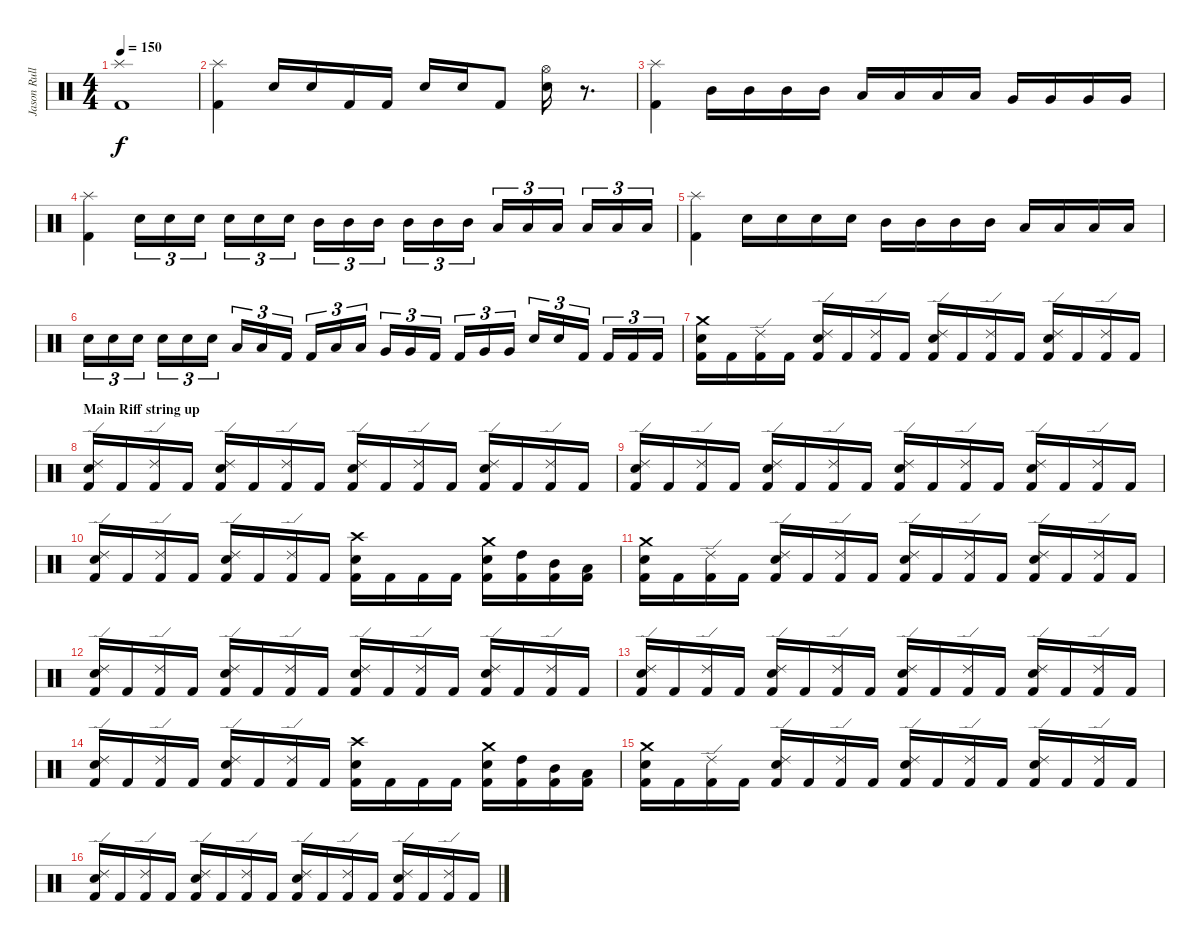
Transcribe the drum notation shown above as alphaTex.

\track ("Jason Rullo" "Jason Rull") {instrument percussion}
\staff {score}
\articulation defaults
\ts (4 4)
\tempo 150
\clef neutral
\ks c
("Splash (hit)" "Kick (hit) 2").1{dy f} |
("Splash (hit)" "Kick (hit) 2").4 "Electric Snare (hit)".16 "Electric Snare (hit)".16 "Kick (hit) 2".16 "Kick (hit) 2".16 "Electric Snare (hit)".16 "Electric Snare (hit)".16 "Kick (hit) 2".8 ("Hi-Hat (open)" "Electric Snare (hit)").16 r.8{d} |
("Splash (hit)" "Kick (hit) 2").4 "Mid Tom (hit)".16 "Mid Tom (hit)".16 "Mid Tom (hit)".16 "Mid Tom (hit)".16 "Low Tom (hit)".16 "Low Tom (hit)".16 "Low Tom (hit)".16 "Low Tom (hit)".16 "Very Low Tom (hit)".16 "Very Low Tom (hit)".16 "Very Low Tom (hit)".16 "Very Low Tom (hit)".16 |
("Splash (hit)" "Kick (hit) 2").4 "Electric Snare (hit)".16{tu (3 2)} "Electric Snare (hit)".16{tu (3 2)} "Electric Snare (hit)".16{tu (3 2)} "Electric Snare (hit)".16{tu (3 2)} "Electric Snare (hit)".16{tu (3 2)} "Electric Snare (hit)".16{tu (3 2)} "Mid Tom (hit)".16{tu (3 2)} "Mid Tom (hit)".16{tu (3 2)} "Mid Tom (hit)".16{tu (3 2)} "Mid Tom (hit)".16{tu (3 2)} "Mid Tom (hit)".16{tu (3 2)} "Mid Tom (hit)".16{tu (3 2)} "Low Tom (hit)".16{tu (3 2)} "Low Tom (hit)".16{tu (3 2)} "Low Tom (hit)".16{tu (3 2)} "Low Tom (hit)".16{tu (3 2)} "Low Tom (hit)".16{tu (3 2)} "Low Tom (hit)".16{tu (3 2)} |
("Splash (hit)" "Kick (hit) 2").4 "Electric Snare (hit)".16 "Electric Snare (hit)".16 "Electric Snare (hit)".16 "Electric Snare (hit)".16 "Mid Tom (hit)".16 "Mid Tom (hit)".16 "Mid Tom (hit)".16 "Mid Tom (hit)".16 "Low Tom (hit)".16 "Low Tom (hit)".16 "Low Tom (hit)".16 "Low Tom (hit)".16 |
"Electric Snare (hit)".16{tu (3 2)} "Electric Snare (hit)".16{tu (3 2)} "Electric Snare (hit)".16{tu (3 2)} "Electric Snare (hit)".16{tu (3 2)} "Electric Snare (hit)".16{tu (3 2)} "Electric Snare (hit)".16{tu (3 2)} "Low Tom (hit)".16{tu (3 2)} "Low Tom (hit)".16{tu (3 2)} "Kick (hit) 2".16{tu (3 2)} "Kick (hit) 2".16{tu (3 2)} "Low Tom (hit)".16{tu (3 2)} "Low Tom (hit)".16{tu (3 2)} "Very Low Tom (hit)".16{tu (3 2)} "Very Low Tom (hit)".16{tu (3 2)} "Kick (hit) 2".16{tu (3 2)} "Kick (hit) 2".16{tu (3 2)} "Very Low Tom (hit)".16{tu (3 2)} "Very Low Tom (hit)".16{tu (3 2)} "Electric Snare (hit)".16{tu (3 2)} "Electric Snare (hit)".16{tu (3 2)} "Kick (hit) 2".16{tu (3 2)} "Kick (hit) 2".16{tu (3 2)} "Kick (hit) 2".16{tu (3 2)} "Kick (hit) 2".16{tu (3 2)} |
("Crash medium (hit)" "Electric Snare (hit)" "Kick (hit) 2").16 "Kick (hit) 2".16 ("Ride (edge) 2" "Kick (hit) 2").16 "Kick (hit) 2".16 ("Ride (edge) 2" "Electric Snare (hit)" "Kick (hit) 2").16 "Kick (hit) 2".16 ("Ride (edge) 2" "Kick (hit) 2").16 "Kick (hit) 2".16 ("Ride (edge) 2" "Electric Snare (hit)" "Kick (hit) 2").16 "Kick (hit) 2".16 ("Ride (edge) 2" "Kick (hit) 2").16 "Kick (hit) 2".16 ("Ride (edge) 2" "Electric Snare (hit)" "Kick (hit) 2").16 "Kick (hit) 2".16 ("Ride (edge) 2" "Kick (hit) 2").16 "Kick (hit) 2".16 |
\section ("" "Main Riff string up")
("Ride (edge) 2" "Electric Snare (hit)" "Kick (hit) 2").16 "Kick (hit) 2".16 ("Ride (edge) 2" "Kick (hit) 2").16 "Kick (hit) 2".16 ("Ride (edge) 2" "Electric Snare (hit)" "Kick (hit) 2").16 "Kick (hit) 2".16 ("Ride (edge) 2" "Kick (hit) 2").16 "Kick (hit) 2".16 ("Ride (edge) 2" "Electric Snare (hit)" "Kick (hit) 2").16 "Kick (hit) 2".16 ("Ride (edge) 2" "Kick (hit) 2").16 "Kick (hit) 2".16 ("Ride (edge) 2" "Electric Snare (hit)" "Kick (hit) 2").16 "Kick (hit) 2".16 ("Ride (edge) 2" "Kick (hit) 2").16 "Kick (hit) 2".16 |
("Ride (edge) 2" "Electric Snare (hit)" "Kick (hit) 2").16 "Kick (hit) 2".16 ("Ride (edge) 2" "Kick (hit) 2").16 "Kick (hit) 2".16 ("Ride (edge) 2" "Electric Snare (hit)" "Kick (hit) 2").16 "Kick (hit) 2".16 ("Ride (edge) 2" "Kick (hit) 2").16 "Kick (hit) 2".16 ("Ride (edge) 2" "Electric Snare (hit)" "Kick (hit) 2").16 "Kick (hit) 2".16 ("Ride (edge) 2" "Kick (hit) 2").16 "Kick (hit) 2".16 ("Ride (edge) 2" "Electric Snare (hit)" "Kick (hit) 2").16 "Kick (hit) 2".16 ("Ride (edge) 2" "Kick (hit) 2").16 "Kick (hit) 2".16 |
("Ride (edge) 2" "Electric Snare (hit)" "Kick (hit) 2").16 "Kick (hit) 2".16 ("Ride (edge) 2" "Kick (hit) 2").16 "Kick (hit) 2".16 ("Ride (edge) 2" "Electric Snare (hit)" "Kick (hit) 2").16 "Kick (hit) 2".16 ("Ride (edge) 2" "Kick (hit) 2").16 "Kick (hit) 2".16 ("Crash high (hit)" "Electric Snare (hit)" "Kick (hit) 2").16 "Kick (hit) 2".16 "Kick (hit) 2".16 "Kick (hit) 2".16 ("Crash medium (hit)" "Electric Snare (hit)" "Kick (hit) 2").16 ("High Tom (hit)" "Kick (hit) 2").16 ("Mid Tom (hit)" "Kick (hit) 2").16 ("Low Tom (hit)" "Kick (hit) 2").16 |
("Crash medium (hit)" "Electric Snare (hit)" "Kick (hit) 2").16 "Kick (hit) 2".16 ("Ride (edge) 2" "Kick (hit) 2").16 "Kick (hit) 2".16 ("Ride (edge) 2" "Electric Snare (hit)" "Kick (hit) 2").16 "Kick (hit) 2".16 ("Ride (edge) 2" "Kick (hit) 2").16 "Kick (hit) 2".16 ("Ride (edge) 2" "Electric Snare (hit)" "Kick (hit) 2").16 "Kick (hit) 2".16 ("Ride (edge) 2" "Kick (hit) 2").16 "Kick (hit) 2".16 ("Ride (edge) 2" "Electric Snare (hit)" "Kick (hit) 2").16 "Kick (hit) 2".16 ("Ride (edge) 2" "Kick (hit) 2").16 "Kick (hit) 2".16 |
("Ride (edge) 2" "Electric Snare (hit)" "Kick (hit) 2").16 "Kick (hit) 2".16 ("Ride (edge) 2" "Kick (hit) 2").16 "Kick (hit) 2".16 ("Ride (edge) 2" "Electric Snare (hit)" "Kick (hit) 2").16 "Kick (hit) 2".16 ("Ride (edge) 2" "Kick (hit) 2").16 "Kick (hit) 2".16 ("Ride (edge) 2" "Electric Snare (hit)" "Kick (hit) 2").16 "Kick (hit) 2".16 ("Ride (edge) 2" "Kick (hit) 2").16 "Kick (hit) 2".16 ("Ride (edge) 2" "Electric Snare (hit)" "Kick (hit) 2").16 "Kick (hit) 2".16 ("Ride (edge) 2" "Kick (hit) 2").16 "Kick (hit) 2".16 |
("Ride (edge) 2" "Electric Snare (hit)" "Kick (hit) 2").16 "Kick (hit) 2".16 ("Ride (edge) 2" "Kick (hit) 2").16 "Kick (hit) 2".16 ("Ride (edge) 2" "Electric Snare (hit)" "Kick (hit) 2").16 "Kick (hit) 2".16 ("Ride (edge) 2" "Kick (hit) 2").16 "Kick (hit) 2".16 ("Ride (edge) 2" "Electric Snare (hit)" "Kick (hit) 2").16 "Kick (hit) 2".16 ("Ride (edge) 2" "Kick (hit) 2").16 "Kick (hit) 2".16 ("Ride (edge) 2" "Electric Snare (hit)" "Kick (hit) 2").16 "Kick (hit) 2".16 ("Ride (edge) 2" "Kick (hit) 2").16 "Kick (hit) 2".16 |
("Ride (edge) 2" "Electric Snare (hit)" "Kick (hit) 2").16 "Kick (hit) 2".16 ("Ride (edge) 2" "Kick (hit) 2").16 "Kick (hit) 2".16 ("Ride (edge) 2" "Electric Snare (hit)" "Kick (hit) 2").16 "Kick (hit) 2".16 ("Ride (edge) 2" "Kick (hit) 2").16 "Kick (hit) 2".16 ("Crash high (hit)" "Electric Snare (hit)" "Kick (hit) 2").16 "Kick (hit) 2".16 "Kick (hit) 2".16 "Kick (hit) 2".16 ("Crash medium (hit)" "Electric Snare (hit)" "Kick (hit) 2").16 ("High Tom (hit)" "Kick (hit) 2").16 ("Mid Tom (hit)" "Kick (hit) 2").16 ("Low Tom (hit)" "Kick (hit) 2").16 |
("Crash medium (hit)" "Electric Snare (hit)" "Kick (hit) 2").16 "Kick (hit) 2".16 ("Ride (edge) 2" "Kick (hit) 2").16 "Kick (hit) 2".16 ("Ride (edge) 2" "Electric Snare (hit)" "Kick (hit) 2").16 "Kick (hit) 2".16 ("Ride (edge) 2" "Kick (hit) 2").16 "Kick (hit) 2".16 ("Ride (edge) 2" "Electric Snare (hit)" "Kick (hit) 2").16 "Kick (hit) 2".16 ("Ride (edge) 2" "Kick (hit) 2").16 "Kick (hit) 2".16 ("Ride (edge) 2" "Electric Snare (hit)" "Kick (hit) 2").16 "Kick (hit) 2".16 ("Ride (edge) 2" "Kick (hit) 2").16 "Kick (hit) 2".16 |
("Ride (edge) 2" "Electric Snare (hit)" "Kick (hit) 2").16 "Kick (hit) 2".16 ("Ride (edge) 2" "Kick (hit) 2").16 "Kick (hit) 2".16 ("Ride (edge) 2" "Electric Snare (hit)" "Kick (hit) 2").16 "Kick (hit) 2".16 ("Ride (edge) 2" "Kick (hit) 2").16 "Kick (hit) 2".16 ("Ride (edge) 2" "Electric Snare (hit)" "Kick (hit) 2").16 "Kick (hit) 2".16 ("Ride (edge) 2" "Kick (hit) 2").16 "Kick (hit) 2".16 ("Ride (edge) 2" "Electric Snare (hit)" "Kick (hit) 2").16 "Kick (hit) 2".16 ("Ride (edge) 2" "Kick (hit) 2").16 "Kick (hit) 2".16
